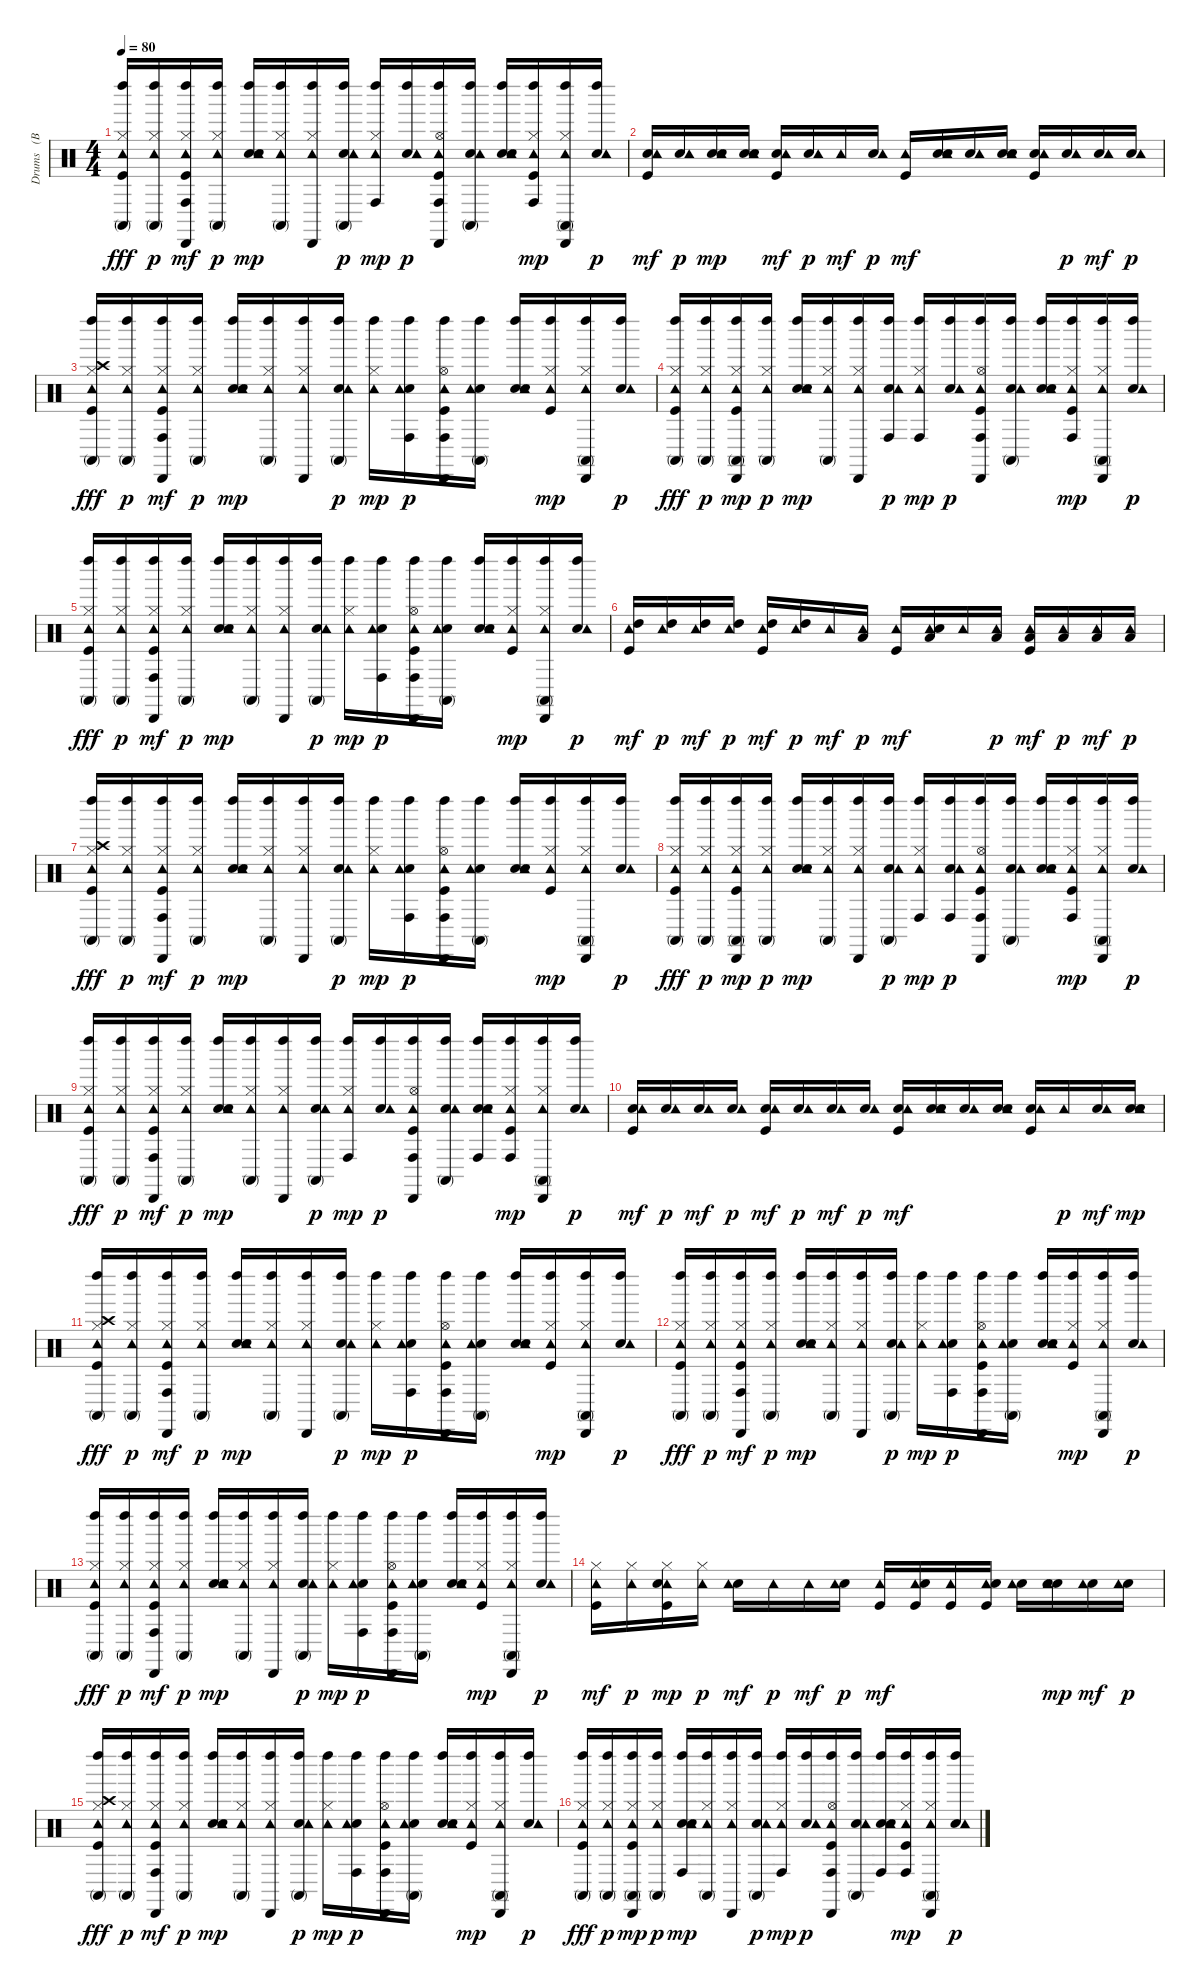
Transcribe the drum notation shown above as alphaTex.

\track ("Drums   (BB)" "Drums   (B") {instrument percussion}
\staff {score}
\articulation defaults
\ts (4 4)
\tempo 80
\clef neutral
\ks c
("Kick (hit)" "Hi-Hat (closed)" "Conga high (mute)" "Tambourine (hit)" "Left Maraca (hit)").16{dy fff} ("Hi-Hat (closed)" "Conga high (mute)" "Tambourine (hit)" "Left Maraca (hit)").16{dy p} ("Kick (hit)" "Hi-Hat (closed)" "Conga high (hit)" "Tambourine (hit)" "Left Maraca (hit)" "Cabasa (hit)").16{dy mf} ("Hi-Hat (closed)" "Conga high (mute)" "Tambourine (hit)" "Left Maraca (hit)").16{dy p} ("Snare (hit) 2" "Tambourine (hit)" "Hand Clap (hit)" "Left Maraca (hit)").16{dy mp} ("Hi-Hat (closed)" "Conga high (mute)" "Tambourine (hit)" "Left Maraca (hit)").16 ("Hi-Hat (closed)" "Tambourine (hit)" "Left Maraca (hit)" "Cabasa (hit)").16 ("Snare (hit) 2" "Conga high (mute)" "Tambourine (hit)" "Left Maraca (hit)").16{dy p} ("Hi-Hat (closed)" "Conga high (hit)" "Tambourine (hit)" "Left Maraca (hit)").16{dy mp} ("Snare (hit) 2" "Tambourine (hit)" "Left Maraca (hit)").16{dy p} ("Kick (hit)" "Hi-Hat (open)" "Conga high (hit)" "Tambourine (hit)" "Left Maraca (hit)" "Cabasa (hit)").16 ("Snare (hit) 2" "Conga high (mute)" "Tambourine (hit)" "Left Maraca (hit)").16 ("Snare (hit) 2" "Tambourine (hit)" "Hand Clap (hit)" "Left Maraca (hit)").16 ("Kick (hit)" "Hi-Hat (closed)" "Conga high (hit)" "Tambourine (hit)" "Left Maraca (hit)").16{dy mp} ("Hi-Hat (closed)" "Conga high (mute)" "Tambourine (hit)" "Left Maraca (hit)" "Cabasa (hit)").16 ("Snare (hit) 2" "Tambourine (hit)" "Left Maraca (hit)").16{dy p} |
("Kick (hit)" "Snare (hit) 2" "Tambourine (hit)").16{dy mf} ("Snare (hit) 2" "Tambourine (hit)").16{dy p} ("Snare (hit) 2" "Tambourine (hit)" "Hand Clap (hit)").16{dy mp} ("Snare (hit) 2" "Tambourine (hit)" "Hand Clap (hit)").16 ("Kick (hit)" "Snare (hit) 2" "Tambourine (hit)").16{dy mf} ("Snare (hit) 2" "Tambourine (hit)").16{dy p} "Tambourine (hit)".16{dy mf} ("Snare (hit) 2" "Tambourine (hit)").16{dy p} ("Kick (hit)" "Tambourine (hit)").16{dy mf} ("Snare (hit) 2" "Tambourine (hit)" "Hand Clap (hit)").16 ("Snare (hit) 2" "Tambourine (hit)").16 ("Snare (hit) 2" "Tambourine (hit)" "Hand Clap (hit)").16 ("Kick (hit)" "Snare (hit) 2" "Tambourine (hit)").16 ("Snare (hit) 2" "Tambourine (hit)").16{dy p} ("Snare (hit) 2" "Tambourine (hit)").16{dy mf} ("Snare (hit) 2" "Tambourine (hit)").16{dy p} |
("Kick (hit)" "Hi-Hat (closed)" "Crash high (hit)" "Conga high (mute)" "Tambourine (hit)" "Left Maraca (hit)").16{dy fff} ("Hi-Hat (closed)" "Conga high (mute)" "Tambourine (hit)" "Left Maraca (hit)").16{dy p} ("Kick (hit)" "Hi-Hat (closed)" "Conga high (hit)" "Tambourine (hit)" "Left Maraca (hit)" "Cabasa (hit)").16{dy mf} ("Hi-Hat (closed)" "Conga high (mute)" "Tambourine (hit)" "Left Maraca (hit)").16{dy p} ("Snare (hit) 2" "Tambourine (hit)" "Hand Clap (hit)" "Left Maraca (hit)").16{dy mp} ("Hi-Hat (closed)" "Conga high (mute)" "Tambourine (hit)" "Left Maraca (hit)").16 ("Hi-Hat (closed)" "Tambourine (hit)" "Left Maraca (hit)" "Cabasa (hit)").16 ("Snare (hit) 2" "Conga high (mute)" "Tambourine (hit)" "Left Maraca (hit)").16{dy p} ("Hi-Hat (closed)" "Tambourine (hit)" "Left Maraca (hit)").16{dy mp} ("Snare (hit) 2" "Conga high (hit)" "Tambourine (hit)" "Left Maraca (hit)").16{dy p} ("Kick (hit)" "Hi-Hat (open)" "Conga high (hit)" "Tambourine (hit)" "Left Maraca (hit)" "Cabasa (hit)").16 ("Snare (hit) 2" "Conga high (mute)" "Tambourine (hit)" "Left Maraca (hit)").16 ("Snare (hit) 2" "Tambourine (hit)" "Hand Clap (hit)" "Left Maraca (hit)").16 ("Kick (hit)" "Hi-Hat (closed)" "Tambourine (hit)" "Left Maraca (hit)").16{dy mp} ("Hi-Hat (closed)" "Conga high (mute)" "Tambourine (hit)" "Left Maraca (hit)" "Cabasa (hit)").16 ("Snare (hit) 2" "Tambourine (hit)" "Left Maraca (hit)").16{dy p} |
("Kick (hit)" "Hi-Hat (closed)" "Conga high (mute)" "Tambourine (hit)" "Left Maraca (hit)").16{dy fff} ("Hi-Hat (closed)" "Conga high (mute)" "Tambourine (hit)" "Left Maraca (hit)").16{dy p} ("Kick (hit)" "Hi-Hat (closed)" "Conga high (mute)" "Tambourine (hit)" "Left Maraca (hit)" "Cabasa (hit)").16{dy mp} ("Hi-Hat (closed)" "Conga high (mute)" "Tambourine (hit)" "Left Maraca (hit)").16{dy p} ("Snare (hit) 2" "Tambourine (hit)" "Hand Clap (hit)" "Left Maraca (hit)").16{dy mp} ("Hi-Hat (closed)" "Conga high (mute)" "Tambourine (hit)" "Left Maraca (hit)").16 ("Hi-Hat (closed)" "Tambourine (hit)" "Left Maraca (hit)" "Cabasa (hit)").16 ("Snare (hit) 2" "Conga high (hit)" "Tambourine (hit)" "Left Maraca (hit)").16{dy p} ("Hi-Hat (closed)" "Conga high (hit)" "Tambourine (hit)" "Left Maraca (hit)").16{dy mp} ("Snare (hit) 2" "Tambourine (hit)" "Left Maraca (hit)").16{dy p} ("Kick (hit)" "Hi-Hat (open)" "Conga high (hit)" "Tambourine (hit)" "Left Maraca (hit)" "Cabasa (hit)").16 ("Snare (hit) 2" "Conga high (mute)" "Tambourine (hit)" "Left Maraca (hit)").16 ("Snare (hit) 2" "Tambourine (hit)" "Hand Clap (hit)" "Left Maraca (hit)").16 ("Kick (hit)" "Hi-Hat (closed)" "Conga high (hit)" "Tambourine (hit)" "Left Maraca (hit)").16{dy mp} ("Hi-Hat (closed)" "Conga high (mute)" "Tambourine (hit)" "Left Maraca (hit)" "Cabasa (hit)").16 ("Snare (hit) 2" "Tambourine (hit)" "Left Maraca (hit)").16{dy p} |
("Kick (hit)" "Hi-Hat (closed)" "Conga high (mute)" "Tambourine (hit)" "Left Maraca (hit)").16{dy fff} ("Hi-Hat (closed)" "Conga high (mute)" "Tambourine (hit)" "Left Maraca (hit)").16{dy p} ("Kick (hit)" "Hi-Hat (closed)" "Conga high (hit)" "Tambourine (hit)" "Left Maraca (hit)" "Cabasa (hit)").16{dy mf} ("Hi-Hat (closed)" "Conga high (mute)" "Tambourine (hit)" "Left Maraca (hit)").16{dy p} ("Snare (hit) 2" "Tambourine (hit)" "Hand Clap (hit)" "Left Maraca (hit)").16{dy mp} ("Hi-Hat (closed)" "Conga high (mute)" "Tambourine (hit)" "Left Maraca (hit)").16 ("Hi-Hat (closed)" "Tambourine (hit)" "Left Maraca (hit)" "Cabasa (hit)").16 ("Snare (hit) 2" "Conga high (mute)" "Tambourine (hit)" "Left Maraca (hit)").16{dy p} ("Hi-Hat (closed)" "Tambourine (hit)" "Left Maraca (hit)").16{dy mp} ("Snare (hit) 2" "Conga high (hit)" "Tambourine (hit)" "Left Maraca (hit)").16{dy p} ("Kick (hit)" "Hi-Hat (open)" "Conga high (hit)" "Tambourine (hit)" "Left Maraca (hit)" "Cabasa (hit)").16 ("Snare (hit) 2" "Conga high (mute)" "Tambourine (hit)" "Left Maraca (hit)").16 ("Snare (hit) 2" "Tambourine (hit)" "Hand Clap (hit)" "Left Maraca (hit)").16 ("Kick (hit)" "Hi-Hat (closed)" "Tambourine (hit)" "Left Maraca (hit)").16{dy mp} ("Hi-Hat (closed)" "Conga high (mute)" "Tambourine (hit)" "Left Maraca (hit)" "Cabasa (hit)").16 ("Snare (hit) 2" "Tambourine (hit)" "Left Maraca (hit)").16{dy p} |
("Kick (hit)" "High Tom (hit)" "Tambourine (hit)").16{dy mf} ("High Tom (hit)" "Tambourine (hit)").16{dy p} ("High Tom (hit)" "Tambourine (hit)").16{dy mf} ("High Tom (hit)" "Tambourine (hit)").16{dy p} ("Kick (hit)" "High Tom (hit)" "Tambourine (hit)").16{dy mf} ("High Tom (hit)" "Tambourine (hit)").16{dy p} "Tambourine (hit)".16{dy mf} ("Low Tom (hit)" "Tambourine (hit)").16{dy p} ("Kick (hit)" "Tambourine (hit)").16{dy mf} ("Low Tom (hit)" "Tambourine (hit)" "Hand Clap (hit)").16 "Tambourine (hit)".16 ("Low Floor Tom (hit)" "Tambourine (hit)").16{dy p} ("Kick (hit)" "Low Floor Tom (hit)" "Tambourine (hit)").16{dy mf} ("Low Floor Tom (hit)" "Tambourine (hit)").16{dy p} ("Low Floor Tom (hit)" "Tambourine (hit)").16{dy mf} ("Low Floor Tom (hit)" "Tambourine (hit)").16{dy p} |
("Kick (hit)" "Hi-Hat (closed)" "Crash high (hit)" "Conga high (mute)" "Tambourine (hit)" "Left Maraca (hit)").16{dy fff} ("Hi-Hat (closed)" "Conga high (mute)" "Tambourine (hit)" "Left Maraca (hit)").16{dy p} ("Kick (hit)" "Hi-Hat (closed)" "Conga high (hit)" "Tambourine (hit)" "Left Maraca (hit)" "Cabasa (hit)").16{dy mf} ("Hi-Hat (closed)" "Conga high (mute)" "Tambourine (hit)" "Left Maraca (hit)").16{dy p} ("Snare (hit) 2" "Tambourine (hit)" "Hand Clap (hit)" "Left Maraca (hit)").16{dy mp} ("Hi-Hat (closed)" "Conga high (mute)" "Tambourine (hit)" "Left Maraca (hit)").16 ("Hi-Hat (closed)" "Tambourine (hit)" "Left Maraca (hit)" "Cabasa (hit)").16 ("Snare (hit) 2" "Conga high (mute)" "Tambourine (hit)" "Left Maraca (hit)").16{dy p} ("Hi-Hat (closed)" "Tambourine (hit)" "Left Maraca (hit)").16{dy mp} ("Snare (hit) 2" "Conga high (hit)" "Tambourine (hit)" "Left Maraca (hit)").16{dy p} ("Kick (hit)" "Hi-Hat (open)" "Conga high (hit)" "Tambourine (hit)" "Left Maraca (hit)" "Cabasa (hit)").16 ("Snare (hit) 2" "Conga high (mute)" "Tambourine (hit)" "Left Maraca (hit)").16 ("Snare (hit) 2" "Tambourine (hit)" "Hand Clap (hit)" "Left Maraca (hit)").16 ("Kick (hit)" "Hi-Hat (closed)" "Tambourine (hit)" "Left Maraca (hit)").16{dy mp} ("Hi-Hat (closed)" "Conga high (mute)" "Tambourine (hit)" "Left Maraca (hit)" "Cabasa (hit)").16 ("Snare (hit) 2" "Tambourine (hit)" "Left Maraca (hit)").16{dy p} |
("Kick (hit)" "Hi-Hat (closed)" "Conga high (mute)" "Tambourine (hit)" "Left Maraca (hit)").16{dy fff} ("Hi-Hat (closed)" "Conga high (mute)" "Tambourine (hit)" "Left Maraca (hit)").16{dy p} ("Kick (hit)" "Hi-Hat (closed)" "Conga high (mute)" "Tambourine (hit)" "Left Maraca (hit)" "Cabasa (hit)").16{dy mp} ("Hi-Hat (closed)" "Conga high (mute)" "Tambourine (hit)" "Left Maraca (hit)").16{dy p} ("Snare (hit) 2" "Tambourine (hit)" "Hand Clap (hit)" "Left Maraca (hit)").16{dy mp} ("Hi-Hat (closed)" "Conga high (mute)" "Tambourine (hit)" "Left Maraca (hit)").16 ("Hi-Hat (closed)" "Tambourine (hit)" "Left Maraca (hit)" "Cabasa (hit)").16 ("Snare (hit) 2" "Conga high (mute)" "Tambourine (hit)" "Left Maraca (hit)").16{dy p} ("Hi-Hat (closed)" "Conga high (hit)" "Tambourine (hit)" "Left Maraca (hit)").16{dy mp} ("Snare (hit) 2" "Conga high (hit)" "Tambourine (hit)" "Left Maraca (hit)").16{dy p} ("Kick (hit)" "Hi-Hat (open)" "Conga high (hit)" "Tambourine (hit)" "Left Maraca (hit)" "Cabasa (hit)").16 ("Snare (hit) 2" "Conga high (mute)" "Tambourine (hit)" "Left Maraca (hit)").16 ("Snare (hit) 2" "Tambourine (hit)" "Hand Clap (hit)" "Left Maraca (hit)").16 ("Kick (hit)" "Hi-Hat (closed)" "Conga high (hit)" "Tambourine (hit)" "Left Maraca (hit)").16{dy mp} ("Hi-Hat (closed)" "Conga high (mute)" "Tambourine (hit)" "Left Maraca (hit)" "Cabasa (hit)").16 ("Snare (hit) 2" "Tambourine (hit)" "Left Maraca (hit)").16{dy p} |
("Kick (hit)" "Hi-Hat (closed)" "Conga high (mute)" "Tambourine (hit)" "Left Maraca (hit)").16{dy fff} ("Hi-Hat (closed)" "Conga high (mute)" "Tambourine (hit)" "Left Maraca (hit)").16{dy p} ("Kick (hit)" "Hi-Hat (closed)" "Conga high (hit)" "Tambourine (hit)" "Left Maraca (hit)" "Cabasa (hit)").16{dy mf} ("Hi-Hat (closed)" "Conga high (mute)" "Tambourine (hit)" "Left Maraca (hit)").16{dy p} ("Snare (hit) 2" "Tambourine (hit)" "Hand Clap (hit)" "Left Maraca (hit)").16{dy mp} ("Hi-Hat (closed)" "Conga high (mute)" "Tambourine (hit)" "Left Maraca (hit)").16 ("Hi-Hat (closed)" "Tambourine (hit)" "Left Maraca (hit)" "Cabasa (hit)").16 ("Snare (hit) 2" "Conga high (mute)" "Tambourine (hit)" "Left Maraca (hit)").16{dy p} ("Hi-Hat (closed)" "Conga high (hit)" "Tambourine (hit)" "Left Maraca (hit)").16{dy mp} ("Snare (hit) 2" "Tambourine (hit)" "Left Maraca (hit)").16{dy p} ("Kick (hit)" "Hi-Hat (open)" "Conga high (hit)" "Tambourine (hit)" "Left Maraca (hit)" "Cabasa (hit)").16 ("Snare (hit) 2" "Conga high (mute)" "Tambourine (hit)" "Left Maraca (hit)").16 ("Snare (hit) 2" "Conga high (hit)" "Tambourine (hit)" "Hand Clap (hit)" "Left Maraca (hit)").16 ("Kick (hit)" "Hi-Hat (closed)" "Conga high (hit)" "Tambourine (hit)" "Left Maraca (hit)").16{dy mp} ("Hi-Hat (closed)" "Conga high (mute)" "Tambourine (hit)" "Left Maraca (hit)" "Cabasa (hit)").16 ("Snare (hit) 2" "Tambourine (hit)" "Left Maraca (hit)").16{dy p} |
("Kick (hit)" "Snare (hit) 2" "Tambourine (hit)").16{dy mf} ("Snare (hit) 2" "Tambourine (hit)").16{dy p} ("Snare (hit) 2" "Tambourine (hit)").16{dy mf} ("Snare (hit) 2" "Tambourine (hit)").16{dy p} ("Kick (hit)" "Snare (hit) 2" "Tambourine (hit)").16{dy mf} ("Snare (hit) 2" "Tambourine (hit)").16{dy p} ("Snare (hit) 2" "Tambourine (hit)").16{dy mf} ("Snare (hit) 2" "Tambourine (hit)").16{dy p} ("Kick (hit)" "Snare (hit) 2" "Tambourine (hit)").16{dy mf} ("Snare (hit) 2" "Tambourine (hit)" "Hand Clap (hit)").16 ("Snare (hit) 2" "Tambourine (hit)").16 ("Snare (hit) 2" "Tambourine (hit)" "Hand Clap (hit)").16 ("Kick (hit)" "Snare (hit) 2" "Tambourine (hit)").16 "Tambourine (hit)".16{dy p} ("Snare (hit) 2" "Tambourine (hit)").16{dy mf} ("Snare (hit) 2" "Tambourine (hit)" "Hand Clap (hit)").16{dy mp} |
("Kick (hit)" "Hi-Hat (closed)" "Crash high (hit)" "Conga high (mute)" "Tambourine (hit)" "Left Maraca (hit)").16{dy fff} ("Hi-Hat (closed)" "Conga high (mute)" "Tambourine (hit)" "Left Maraca (hit)").16{dy p} ("Kick (hit)" "Hi-Hat (closed)" "Conga high (hit)" "Tambourine (hit)" "Left Maraca (hit)" "Cabasa (hit)").16{dy mf} ("Hi-Hat (closed)" "Conga high (mute)" "Tambourine (hit)" "Left Maraca (hit)").16{dy p} ("Snare (hit) 2" "Tambourine (hit)" "Hand Clap (hit)" "Left Maraca (hit)").16{dy mp} ("Hi-Hat (closed)" "Conga high (mute)" "Tambourine (hit)" "Left Maraca (hit)").16 ("Hi-Hat (closed)" "Tambourine (hit)" "Left Maraca (hit)" "Cabasa (hit)").16 ("Snare (hit) 2" "Conga high (mute)" "Tambourine (hit)" "Left Maraca (hit)").16{dy p} ("Hi-Hat (closed)" "Tambourine (hit)" "Left Maraca (hit)").16{dy mp} ("Snare (hit) 2" "Conga high (hit)" "Tambourine (hit)" "Left Maraca (hit)").16{dy p} ("Kick (hit)" "Hi-Hat (open)" "Conga high (hit)" "Tambourine (hit)" "Left Maraca (hit)" "Cabasa (hit)").16 ("Snare (hit) 2" "Conga high (mute)" "Tambourine (hit)" "Left Maraca (hit)").16 ("Snare (hit) 2" "Tambourine (hit)" "Hand Clap (hit)" "Left Maraca (hit)").16 ("Kick (hit)" "Hi-Hat (closed)" "Tambourine (hit)" "Left Maraca (hit)").16{dy mp} ("Hi-Hat (closed)" "Conga high (mute)" "Tambourine (hit)" "Left Maraca (hit)" "Cabasa (hit)").16 ("Snare (hit) 2" "Tambourine (hit)" "Left Maraca (hit)").16{dy p} |
("Kick (hit)" "Hi-Hat (closed)" "Conga high (mute)" "Tambourine (hit)" "Left Maraca (hit)").16{dy fff} ("Hi-Hat (closed)" "Conga high (mute)" "Tambourine (hit)" "Left Maraca (hit)").16{dy p} ("Kick (hit)" "Hi-Hat (closed)" "Conga high (hit)" "Tambourine (hit)" "Left Maraca (hit)" "Cabasa (hit)").16{dy mf} ("Hi-Hat (closed)" "Conga high (mute)" "Tambourine (hit)" "Left Maraca (hit)").16{dy p} ("Snare (hit) 2" "Tambourine (hit)" "Hand Clap (hit)" "Left Maraca (hit)").16{dy mp} ("Hi-Hat (closed)" "Conga high (mute)" "Tambourine (hit)" "Left Maraca (hit)").16 ("Hi-Hat (closed)" "Tambourine (hit)" "Left Maraca (hit)" "Cabasa (hit)").16 ("Snare (hit) 2" "Conga high (mute)" "Tambourine (hit)" "Left Maraca (hit)").16{dy p} ("Hi-Hat (closed)" "Tambourine (hit)" "Left Maraca (hit)").16{dy mp} ("Snare (hit) 2" "Conga high (hit)" "Tambourine (hit)" "Left Maraca (hit)").16{dy p} ("Kick (hit)" "Hi-Hat (open)" "Conga high (hit)" "Tambourine (hit)" "Left Maraca (hit)" "Cabasa (hit)").16 ("Snare (hit) 2" "Conga high (mute)" "Tambourine (hit)" "Left Maraca (hit)").16 ("Snare (hit) 2" "Tambourine (hit)" "Hand Clap (hit)" "Left Maraca (hit)").16 ("Kick (hit)" "Hi-Hat (closed)" "Tambourine (hit)" "Left Maraca (hit)").16{dy mp} ("Hi-Hat (closed)" "Conga high (mute)" "Tambourine (hit)" "Left Maraca (hit)" "Cabasa (hit)").16 ("Snare (hit) 2" "Tambourine (hit)" "Left Maraca (hit)").16{dy p} |
("Kick (hit)" "Hi-Hat (closed)" "Conga high (mute)" "Tambourine (hit)" "Left Maraca (hit)").16{dy fff} ("Hi-Hat (closed)" "Conga high (mute)" "Tambourine (hit)" "Left Maraca (hit)").16{dy p} ("Kick (hit)" "Hi-Hat (closed)" "Conga high (hit)" "Tambourine (hit)" "Left Maraca (hit)" "Cabasa (hit)").16{dy mf} ("Hi-Hat (closed)" "Conga high (mute)" "Tambourine (hit)" "Left Maraca (hit)").16{dy p} ("Snare (hit) 2" "Tambourine (hit)" "Hand Clap (hit)" "Left Maraca (hit)").16{dy mp} ("Hi-Hat (closed)" "Conga high (mute)" "Tambourine (hit)" "Left Maraca (hit)").16 ("Hi-Hat (closed)" "Tambourine (hit)" "Left Maraca (hit)" "Cabasa (hit)").16 ("Snare (hit) 2" "Conga high (mute)" "Tambourine (hit)" "Left Maraca (hit)").16{dy p} ("Hi-Hat (closed)" "Tambourine (hit)" "Left Maraca (hit)").16{dy mp} ("Snare (hit) 2" "Conga high (hit)" "Tambourine (hit)" "Left Maraca (hit)").16{dy p} ("Kick (hit)" "Hi-Hat (open)" "Conga high (hit)" "Tambourine (hit)" "Left Maraca (hit)" "Cabasa (hit)").16 ("Snare (hit) 2" "Conga high (mute)" "Tambourine (hit)" "Left Maraca (hit)").16 ("Snare (hit) 2" "Tambourine (hit)" "Hand Clap (hit)" "Left Maraca (hit)").16 ("Kick (hit)" "Hi-Hat (closed)" "Tambourine (hit)" "Left Maraca (hit)").16{dy mp} ("Hi-Hat (closed)" "Conga high (mute)" "Tambourine (hit)" "Left Maraca (hit)" "Cabasa (hit)").16 ("Snare (hit) 2" "Tambourine (hit)" "Left Maraca (hit)").16{dy p} |
("Kick (hit)" "Hi-Hat (closed)" "Tambourine (hit)").16{dy mf} ("Hi-Hat (closed)" "Tambourine (hit)").16{dy p} ("Kick (hit)" "Hi-Hat (closed)" "Tambourine (hit)" "Hand Clap (hit)").16{dy mp} ("Hi-Hat (closed)" "Tambourine (hit)").16{dy p} ("Snare (hit) 2" "Tambourine (hit)").16{dy mf} "Tambourine (hit)".16{dy p} "Tambourine (hit)".16{dy mf} ("Snare (hit) 2" "Tambourine (hit)").16{dy p} ("Kick (hit)" "Tambourine (hit)").16{dy mf} ("Kick (hit)" "Tambourine (hit)" "Hand Clap (hit)").16 ("Kick (hit)" "Tambourine (hit)").16 ("Kick (hit)" "Tambourine (hit)" "Hand Clap (hit)").16 ("Snare (hit) 2" "Tambourine (hit)").16 ("Snare (hit) 2" "Tambourine (hit)" "Hand Clap (hit)").16{dy mp} ("Snare (hit) 2" "Tambourine (hit)").16{dy mf} ("Snare (hit) 2" "Tambourine (hit)").16{dy p} |
("Kick (hit)" "Hi-Hat (closed)" "Crash high (hit)" "Conga high (mute)" "Tambourine (hit)" "Left Maraca (hit)").16{dy fff} ("Hi-Hat (closed)" "Conga high (mute)" "Tambourine (hit)" "Left Maraca (hit)").16{dy p} ("Kick (hit)" "Hi-Hat (closed)" "Conga high (hit)" "Tambourine (hit)" "Left Maraca (hit)" "Cabasa (hit)").16{dy mf} ("Hi-Hat (closed)" "Conga high (mute)" "Tambourine (hit)" "Left Maraca (hit)").16{dy p} ("Snare (hit) 2" "Tambourine (hit)" "Hand Clap (hit)" "Left Maraca (hit)").16{dy mp} ("Hi-Hat (closed)" "Conga high (mute)" "Tambourine (hit)" "Left Maraca (hit)").16 ("Hi-Hat (closed)" "Tambourine (hit)" "Left Maraca (hit)" "Cabasa (hit)").16 ("Snare (hit) 2" "Conga high (mute)" "Tambourine (hit)" "Left Maraca (hit)").16{dy p} ("Hi-Hat (closed)" "Tambourine (hit)" "Left Maraca (hit)").16{dy mp} ("Snare (hit) 2" "Conga high (hit)" "Tambourine (hit)" "Left Maraca (hit)").16{dy p} ("Kick (hit)" "Hi-Hat (open)" "Conga high (hit)" "Tambourine (hit)" "Left Maraca (hit)" "Cabasa (hit)").16 ("Snare (hit) 2" "Conga high (mute)" "Tambourine (hit)" "Left Maraca (hit)").16 ("Snare (hit) 2" "Tambourine (hit)" "Hand Clap (hit)" "Left Maraca (hit)").16 ("Kick (hit)" "Hi-Hat (closed)" "Tambourine (hit)" "Left Maraca (hit)").16{dy mp} ("Hi-Hat (closed)" "Conga high (mute)" "Tambourine (hit)" "Left Maraca (hit)" "Cabasa (hit)").16 ("Snare (hit) 2" "Tambourine (hit)" "Left Maraca (hit)").16{dy p} |
("Kick (hit)" "Hi-Hat (closed)" "Conga high (mute)" "Tambourine (hit)" "Left Maraca (hit)").16{dy fff} ("Hi-Hat (closed)" "Conga high (mute)" "Tambourine (hit)" "Left Maraca (hit)").16{dy p} ("Kick (hit)" "Hi-Hat (closed)" "Conga high (mute)" "Tambourine (hit)" "Left Maraca (hit)" "Cabasa (hit)").16{dy mp} ("Hi-Hat (closed)" "Conga high (mute)" "Tambourine (hit)" "Left Maraca (hit)").16{dy p} ("Snare (hit) 2" "Conga high (hit)" "Tambourine (hit)" "Hand Clap (hit)" "Left Maraca (hit)").16{dy mp} ("Hi-Hat (closed)" "Conga high (mute)" "Tambourine (hit)" "Left Maraca (hit)").16 ("Hi-Hat (closed)" "Tambourine (hit)" "Left Maraca (hit)" "Cabasa (hit)").16 ("Snare (hit) 2" "Conga high (mute)" "Tambourine (hit)" "Left Maraca (hit)").16{dy p} ("Hi-Hat (closed)" "Conga high (hit)" "Tambourine (hit)" "Left Maraca (hit)").16{dy mp} ("Snare (hit) 2" "Tambourine (hit)" "Left Maraca (hit)").16{dy p} ("Kick (hit)" "Hi-Hat (open)" "Conga high (hit)" "Tambourine (hit)" "Left Maraca (hit)" "Cabasa (hit)").16 ("Snare (hit) 2" "Conga high (mute)" "Tambourine (hit)" "Left Maraca (hit)").16 ("Snare (hit) 2" "Conga high (hit)" "Tambourine (hit)" "Hand Clap (hit)" "Left Maraca (hit)").16 ("Kick (hit)" "Hi-Hat (closed)" "Conga high (hit)" "Tambourine (hit)" "Left Maraca (hit)").16{dy mp} ("Hi-Hat (closed)" "Conga high (mute)" "Tambourine (hit)" "Left Maraca (hit)" "Cabasa (hit)").16 ("Snare (hit) 2" "Tambourine (hit)" "Left Maraca (hit)").16{dy p}
